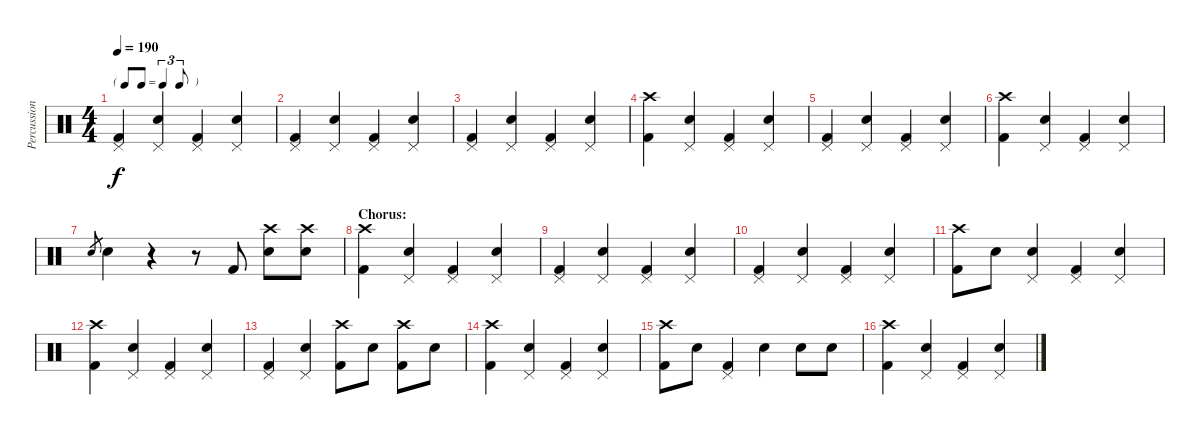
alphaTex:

\track ("Percussion" "Percussion") {instrument percussion}
\staff {score}
\articulation defaults
\ts (4 4)
\tf triplet8th
\tempo 190
\clef neutral
\ks c
("Pedal Hi-Hat (hit)" "Kick (hit) 2").4{dy f} ("Pedal Hi-Hat (hit)" "Electric Snare (hit)").4 ("Pedal Hi-Hat (hit)" "Kick (hit) 2").4 ("Pedal Hi-Hat (hit)" "Electric Snare (hit)").4 |
("Pedal Hi-Hat (hit)" "Kick (hit) 2").4 ("Pedal Hi-Hat (hit)" "Electric Snare (hit)").4 ("Pedal Hi-Hat (hit)" "Kick (hit) 2").4 ("Pedal Hi-Hat (hit)" "Electric Snare (hit)").4 |
("Pedal Hi-Hat (hit)" "Kick (hit) 2").4 ("Pedal Hi-Hat (hit)" "Electric Snare (hit)").4 ("Pedal Hi-Hat (hit)" "Kick (hit) 2").4 ("Pedal Hi-Hat (hit)" "Electric Snare (hit)").4 |
("Crash high (hit)" "Kick (hit) 2").4 ("Pedal Hi-Hat (hit)" "Electric Snare (hit)").4 ("Pedal Hi-Hat (hit)" "Kick (hit) 2").4 ("Pedal Hi-Hat (hit)" "Electric Snare (hit)").4 |
("Pedal Hi-Hat (hit)" "Kick (hit) 2").4 ("Pedal Hi-Hat (hit)" "Electric Snare (hit)").4 ("Pedal Hi-Hat (hit)" "Kick (hit) 2").4 ("Pedal Hi-Hat (hit)" "Electric Snare (hit)").4 |
("Crash high (hit)" "Kick (hit) 2").4 ("Pedal Hi-Hat (hit)" "Electric Snare (hit)").4 ("Pedal Hi-Hat (hit)" "Kick (hit) 2").4 ("Pedal Hi-Hat (hit)" "Electric Snare (hit)").4 |
"Electric Snare (hit)".8{gr} "Electric Snare (hit)".4 r.4 r.8 "Kick (hit) 2".8 ("Crash high (hit)" "Electric Snare (hit)").8 ("Crash high (hit)" "Electric Snare (hit)").8 |
\section ("" "Chorus:")
("Crash high (hit)" "Kick (hit) 2").4 ("Pedal Hi-Hat (hit)" "Electric Snare (hit)").4 ("Pedal Hi-Hat (hit)" "Kick (hit) 2").4 ("Pedal Hi-Hat (hit)" "Electric Snare (hit)").4 |
("Pedal Hi-Hat (hit)" "Kick (hit) 2").4 ("Pedal Hi-Hat (hit)" "Electric Snare (hit)").4 ("Pedal Hi-Hat (hit)" "Kick (hit) 2").4 ("Pedal Hi-Hat (hit)" "Electric Snare (hit)").4 |
("Pedal Hi-Hat (hit)" "Kick (hit) 2").4 ("Pedal Hi-Hat (hit)" "Electric Snare (hit)").4 ("Pedal Hi-Hat (hit)" "Kick (hit) 2").4 ("Pedal Hi-Hat (hit)" "Electric Snare (hit)").4 |
("Crash high (hit)" "Kick (hit) 2").8 "Electric Snare (hit)".8 ("Pedal Hi-Hat (hit)" "Electric Snare (hit)").4 ("Pedal Hi-Hat (hit)" "Kick (hit) 2").4 ("Pedal Hi-Hat (hit)" "Electric Snare (hit)").4 |
("Crash high (hit)" "Kick (hit) 2").4 ("Pedal Hi-Hat (hit)" "Electric Snare (hit)").4 ("Pedal Hi-Hat (hit)" "Kick (hit) 2").4 ("Pedal Hi-Hat (hit)" "Electric Snare (hit)").4 |
("Pedal Hi-Hat (hit)" "Kick (hit) 2").4 ("Pedal Hi-Hat (hit)" "Electric Snare (hit)").4 ("Crash high (hit)" "Kick (hit) 2").8 "Electric Snare (hit)".8 ("Crash high (hit)" "Kick (hit) 2").8 "Electric Snare (hit)".8 |
("Crash high (hit)" "Kick (hit) 2").4 ("Pedal Hi-Hat (hit)" "Electric Snare (hit)").4 ("Pedal Hi-Hat (hit)" "Kick (hit) 2").4 ("Pedal Hi-Hat (hit)" "Electric Snare (hit)").4 |
("Crash high (hit)" "Kick (hit) 2").8 "Electric Snare (hit)".8 ("Pedal Hi-Hat (hit)" "Kick (hit) 2").4 "Electric Snare (hit)".4 "Electric Snare (hit)".8 "Electric Snare (hit)".8 |
("Crash high (hit)" "Kick (hit) 2").4 ("Pedal Hi-Hat (hit)" "Electric Snare (hit)").4 ("Pedal Hi-Hat (hit)" "Kick (hit) 2").4 ("Pedal Hi-Hat (hit)" "Electric Snare (hit)").4
